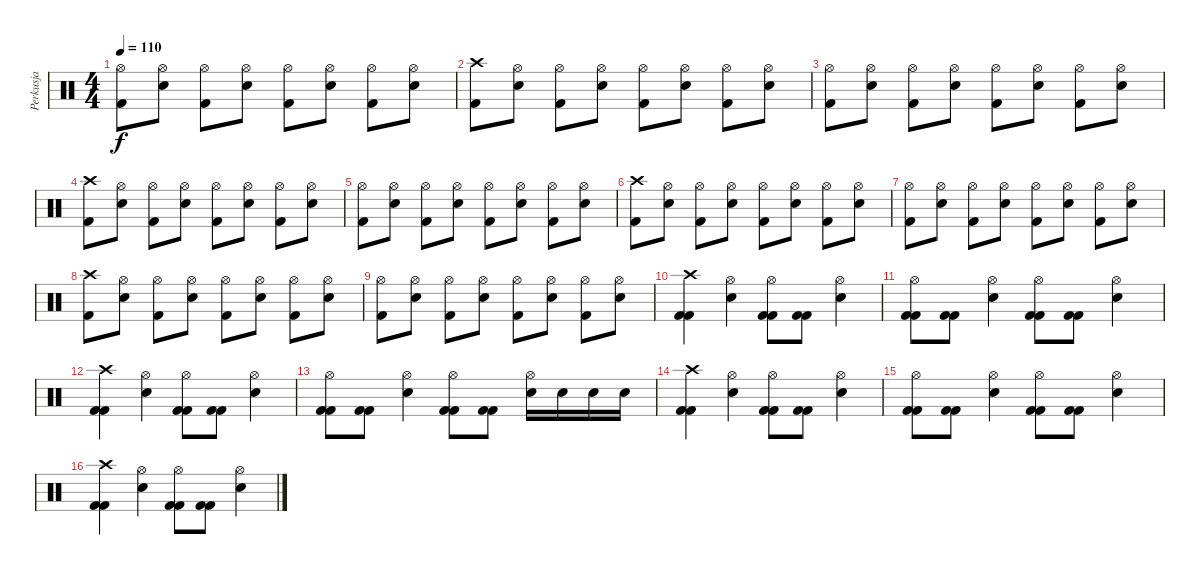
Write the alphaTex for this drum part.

\track ("Perkusja" "Perkusja") {instrument percussion}
\staff {score}
\articulation defaults
\ts (4 4)
\tempo 110
\clef neutral
\ks c
("Hi-Hat (open)" "Kick (hit) 2").8{dy f} ("Hi-Hat (open)" "Electric Snare (hit)").8 ("Hi-Hat (open)" "Kick (hit) 2").8 ("Hi-Hat (open)" "Electric Snare (hit)").8 ("Hi-Hat (open)" "Kick (hit) 2").8 ("Hi-Hat (open)" "Electric Snare (hit)").8 ("Hi-Hat (open)" "Kick (hit) 2").8 ("Hi-Hat (open)" "Electric Snare (hit)").8 |
("Crash high (hit)" "Kick (hit) 2").8 ("Hi-Hat (open)" "Electric Snare (hit)").8 ("Hi-Hat (open)" "Kick (hit) 2").8 ("Hi-Hat (open)" "Electric Snare (hit)").8 ("Hi-Hat (open)" "Kick (hit) 2").8 ("Hi-Hat (open)" "Electric Snare (hit)").8 ("Hi-Hat (open)" "Kick (hit) 2").8 ("Hi-Hat (open)" "Electric Snare (hit)").8 |
("Hi-Hat (open)" "Kick (hit) 2").8 ("Hi-Hat (open)" "Electric Snare (hit)").8 ("Hi-Hat (open)" "Kick (hit) 2").8 ("Hi-Hat (open)" "Electric Snare (hit)").8 ("Hi-Hat (open)" "Kick (hit) 2").8 ("Hi-Hat (open)" "Electric Snare (hit)").8 ("Hi-Hat (open)" "Kick (hit) 2").8 ("Hi-Hat (open)" "Electric Snare (hit)").8 |
("Crash high (hit)" "Kick (hit) 2").8 ("Hi-Hat (open)" "Electric Snare (hit)").8 ("Hi-Hat (open)" "Kick (hit) 2").8 ("Hi-Hat (open)" "Electric Snare (hit)").8 ("Hi-Hat (open)" "Kick (hit) 2").8 ("Hi-Hat (open)" "Electric Snare (hit)").8 ("Hi-Hat (open)" "Kick (hit) 2").8 ("Hi-Hat (open)" "Electric Snare (hit)").8 |
("Hi-Hat (open)" "Kick (hit) 2").8 ("Hi-Hat (open)" "Electric Snare (hit)").8 ("Hi-Hat (open)" "Kick (hit) 2").8 ("Hi-Hat (open)" "Electric Snare (hit)").8 ("Hi-Hat (open)" "Kick (hit) 2").8 ("Hi-Hat (open)" "Electric Snare (hit)").8 ("Hi-Hat (open)" "Kick (hit) 2").8 ("Hi-Hat (open)" "Electric Snare (hit)").8 |
("Crash high (hit)" "Kick (hit) 2").8 ("Hi-Hat (open)" "Electric Snare (hit)").8 ("Hi-Hat (open)" "Kick (hit) 2").8 ("Hi-Hat (open)" "Electric Snare (hit)").8 ("Hi-Hat (open)" "Kick (hit) 2").8 ("Hi-Hat (open)" "Electric Snare (hit)").8 ("Hi-Hat (open)" "Kick (hit) 2").8 ("Hi-Hat (open)" "Electric Snare (hit)").8 |
("Hi-Hat (open)" "Kick (hit) 2").8 ("Hi-Hat (open)" "Electric Snare (hit)").8 ("Hi-Hat (open)" "Kick (hit) 2").8 ("Hi-Hat (open)" "Electric Snare (hit)").8 ("Hi-Hat (open)" "Kick (hit) 2").8 ("Hi-Hat (open)" "Electric Snare (hit)").8 ("Hi-Hat (open)" "Kick (hit) 2").8 ("Hi-Hat (open)" "Electric Snare (hit)").8 |
("Crash high (hit)" "Kick (hit) 2").8 ("Hi-Hat (open)" "Electric Snare (hit)").8 ("Hi-Hat (open)" "Kick (hit) 2").8 ("Hi-Hat (open)" "Electric Snare (hit)").8 ("Hi-Hat (open)" "Kick (hit) 2").8 ("Hi-Hat (open)" "Electric Snare (hit)").8 ("Hi-Hat (open)" "Kick (hit) 2").8 ("Hi-Hat (open)" "Electric Snare (hit)").8 |
("Hi-Hat (open)" "Kick (hit) 2").8 ("Hi-Hat (open)" "Electric Snare (hit)").8 ("Hi-Hat (open)" "Kick (hit) 2").8 ("Hi-Hat (open)" "Electric Snare (hit)").8 ("Hi-Hat (open)" "Kick (hit) 2").8 ("Hi-Hat (open)" "Electric Snare (hit)").8 ("Hi-Hat (open)" "Kick (hit) 2").8 ("Hi-Hat (open)" "Electric Snare (hit)").8 |
("Crash high (hit)" "Kick (hit) 2" "Kick (hit) 2").4 ("Hi-Hat (open)" "Electric Snare (hit)").4 ("Hi-Hat (open)" "Kick (hit) 2" "Kick (hit) 2").8 ("Kick (hit) 2" "Kick (hit) 2").8 ("Hi-Hat (open)" "Electric Snare (hit)").4 |
("Hi-Hat (open)" "Kick (hit) 2" "Kick (hit) 2").8 ("Kick (hit) 2" "Kick (hit) 2").8 ("Hi-Hat (open)" "Electric Snare (hit)").4 ("Hi-Hat (open)" "Kick (hit) 2" "Kick (hit) 2").8 ("Kick (hit) 2" "Kick (hit) 2").8 ("Hi-Hat (open)" "Electric Snare (hit)").4 |
("Crash high (hit)" "Kick (hit) 2" "Kick (hit) 2").4 ("Hi-Hat (open)" "Electric Snare (hit)").4 ("Hi-Hat (open)" "Kick (hit) 2" "Kick (hit) 2").8 ("Kick (hit) 2" "Kick (hit) 2").8 ("Hi-Hat (open)" "Electric Snare (hit)").4 |
("Hi-Hat (open)" "Kick (hit) 2" "Kick (hit) 2").8 ("Kick (hit) 2" "Kick (hit) 2").8 ("Hi-Hat (open)" "Electric Snare (hit)").4 ("Hi-Hat (open)" "Kick (hit) 2" "Kick (hit) 2").8 ("Kick (hit) 2" "Kick (hit) 2").8 ("Hi-Hat (open)" "Electric Snare (hit)").16 "Electric Snare (hit)".16 "Electric Snare (hit)".16 "Electric Snare (hit)".16 |
("Crash high (hit)" "Kick (hit) 2" "Kick (hit) 2").4 ("Hi-Hat (open)" "Electric Snare (hit)").4 ("Hi-Hat (open)" "Kick (hit) 2" "Kick (hit) 2").8 ("Kick (hit) 2" "Kick (hit) 2").8 ("Hi-Hat (open)" "Electric Snare (hit)").4 |
("Hi-Hat (open)" "Kick (hit) 2" "Kick (hit) 2").8 ("Kick (hit) 2" "Kick (hit) 2").8 ("Hi-Hat (open)" "Electric Snare (hit)").4 ("Hi-Hat (open)" "Kick (hit) 2" "Kick (hit) 2").8 ("Kick (hit) 2" "Kick (hit) 2").8 ("Hi-Hat (open)" "Electric Snare (hit)").4 |
("Crash high (hit)" "Kick (hit) 2" "Kick (hit) 2").4 ("Hi-Hat (open)" "Electric Snare (hit)").4 ("Hi-Hat (open)" "Kick (hit) 2" "Kick (hit) 2").8 ("Kick (hit) 2" "Kick (hit) 2").8 ("Hi-Hat (open)" "Electric Snare (hit)").4
